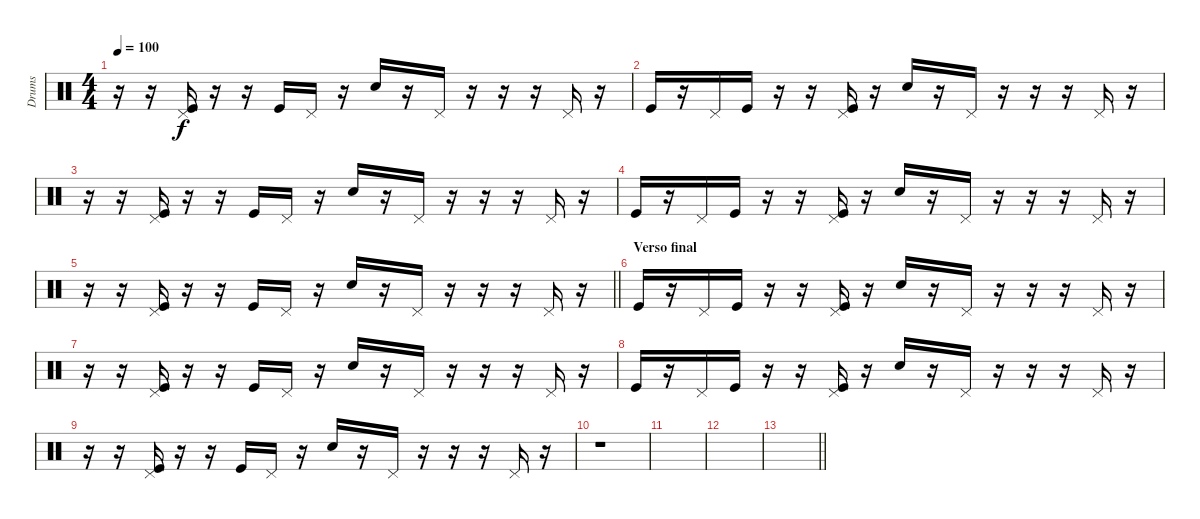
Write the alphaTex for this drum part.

\track ("Drums " "Drums ") {instrument percussion}
\staff {score}
\articulation defaults
\ts (4 4)
\tempo 100
\clef neutral
\ks c
r.16{dy f} r.16 ("Pedal Hi-Hat (hit)" "Kick (hit)").16 r.16 r.16 "Kick (hit)".16 "Pedal Hi-Hat (hit)".16 r.16 "Snare (hit) 2".16 r.16 "Pedal Hi-Hat (hit)".16 r.16 r.16 r.16 "Pedal Hi-Hat (hit)".16 r.16 |
"Kick (hit)".16 r.16 "Pedal Hi-Hat (hit)".16 "Kick (hit)".16 r.16 r.16 ("Pedal Hi-Hat (hit)" "Kick (hit)").16 r.16 "Snare (hit) 2".16 r.16 "Pedal Hi-Hat (hit)".16 r.16 r.16 r.16 "Pedal Hi-Hat (hit)".16 r.16 |
r.16 r.16 ("Pedal Hi-Hat (hit)" "Kick (hit)").16 r.16 r.16 "Kick (hit)".16 "Pedal Hi-Hat (hit)".16 r.16 "Snare (hit) 2".16 r.16 "Pedal Hi-Hat (hit)".16 r.16 r.16 r.16 "Pedal Hi-Hat (hit)".16 r.16 |
"Kick (hit)".16 r.16 "Pedal Hi-Hat (hit)".16 "Kick (hit)".16 r.16 r.16 ("Pedal Hi-Hat (hit)" "Kick (hit)").16 r.16 "Snare (hit) 2".16 r.16 "Pedal Hi-Hat (hit)".16 r.16 r.16 r.16 "Pedal Hi-Hat (hit)".16 r.16 |
\barLineRight lightlight
r.16 r.16 ("Pedal Hi-Hat (hit)" "Kick (hit)").16 r.16 r.16 "Kick (hit)".16 "Pedal Hi-Hat (hit)".16 r.16 "Snare (hit) 2".16 r.16 "Pedal Hi-Hat (hit)".16 r.16 r.16 r.16 "Pedal Hi-Hat (hit)".16 r.16 |
\section ("" "Verso final ")
"Kick (hit)".16 r.16 "Pedal Hi-Hat (hit)".16 "Kick (hit)".16 r.16 r.16 ("Pedal Hi-Hat (hit)" "Kick (hit)").16 r.16 "Snare (hit) 2".16 r.16 "Pedal Hi-Hat (hit)".16 r.16 r.16 r.16 "Pedal Hi-Hat (hit)".16 r.16 |
r.16 r.16 ("Pedal Hi-Hat (hit)" "Kick (hit)").16 r.16 r.16 "Kick (hit)".16 "Pedal Hi-Hat (hit)".16 r.16 "Snare (hit) 2".16 r.16 "Pedal Hi-Hat (hit)".16 r.16 r.16 r.16 "Pedal Hi-Hat (hit)".16 r.16 |
"Kick (hit)".16 r.16 "Pedal Hi-Hat (hit)".16 "Kick (hit)".16 r.16 r.16 ("Pedal Hi-Hat (hit)" "Kick (hit)").16 r.16 "Snare (hit) 2".16 r.16 "Pedal Hi-Hat (hit)".16 r.16 r.16 r.16 "Pedal Hi-Hat (hit)".16 r.16 |
r.16 r.16 ("Pedal Hi-Hat (hit)" "Kick (hit)").16 r.16 r.16 "Kick (hit)".16 "Pedal Hi-Hat (hit)".16 r.16 "Snare (hit) 2".16 r.16 "Pedal Hi-Hat (hit)".16 r.16 r.16 r.16 "Pedal Hi-Hat (hit)".16 r.16 |
r.1 |
|
|
\barLineRight lightlight
